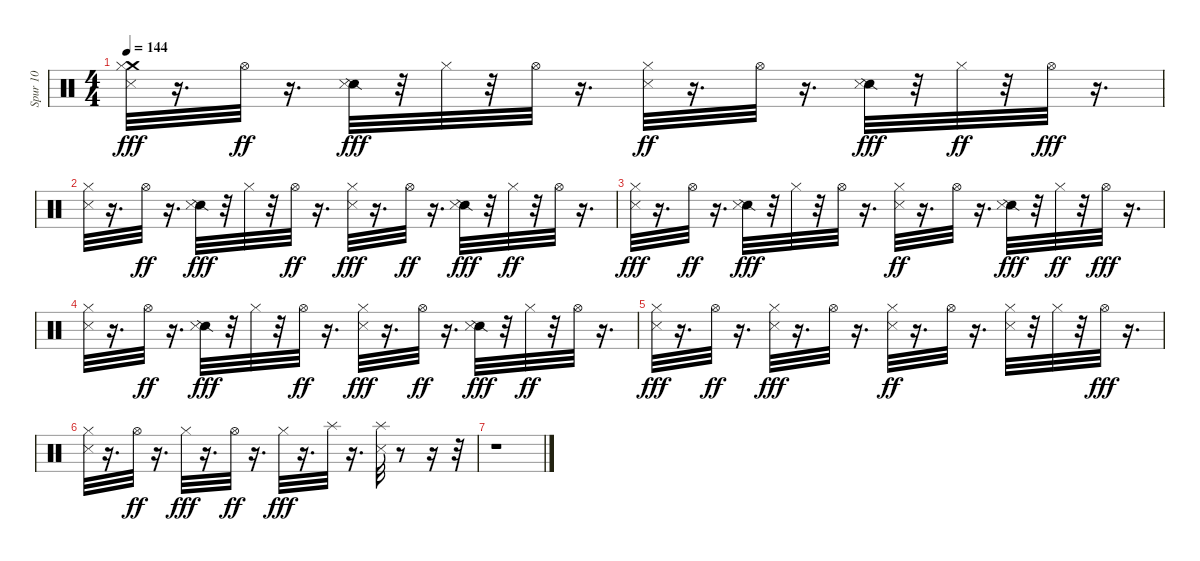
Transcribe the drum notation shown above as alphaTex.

\track ("Spur 10" "Spur 10") {instrument percussion}
\staff {score}
\articulation defaults
\ts (4 4)
\tempo 144
\clef neutral
\ks c
("Crash medium (hit)" "Metronome (hit)" "Hi-Hat (closed)").32{dy fff} r.16{d} "Hi-Hat (open)".32{dy ff} r.16{d} ("Snare (side stick) 2" "Metronome (hit)").32{dy fff} r.32 "Hi-Hat (closed)".32 r.32 "Hi-Hat (open)".32 r.16{d} ("Metronome (hit)" "Hi-Hat (closed)").32{dy ff} r.16{d} "Hi-Hat (open)".32 r.16{d} ("Snare (side stick) 2" "Metronome (hit)").32{dy fff} r.32 "Hi-Hat (closed)".32{dy ff} r.32 "Hi-Hat (open)".32{dy fff} r.16{d} |
("Metronome (hit)" "Hi-Hat (closed)").32 r.16{d} "Hi-Hat (open)".32{dy ff} r.16{d} ("Snare (side stick) 2" "Metronome (hit)").32{dy fff} r.32 "Hi-Hat (closed)".32 r.32 "Hi-Hat (open)".32{dy ff} r.16{d} ("Metronome (hit)" "Hi-Hat (closed)").32{dy fff} r.16{d} "Hi-Hat (open)".32{dy ff} r.16{d} ("Snare (side stick) 2" "Metronome (hit)").32{dy fff} r.32 "Hi-Hat (closed)".32{dy ff} r.32 "Hi-Hat (open)".32 r.16{d} |
("Metronome (hit)" "Hi-Hat (closed)").32{dy fff} r.16{d} "Hi-Hat (open)".32{dy ff} r.16{d} ("Snare (side stick) 2" "Metronome (hit)").32{dy fff} r.32 "Hi-Hat (closed)".32 r.32 "Hi-Hat (open)".32 r.16{d} ("Metronome (hit)" "Hi-Hat (closed)").32{dy ff} r.16{d} "Hi-Hat (open)".32 r.16{d} ("Snare (side stick) 2" "Metronome (hit)").32{dy fff} r.32 "Hi-Hat (closed)".32{dy ff} r.32 "Hi-Hat (open)".32{dy fff} r.16{d} |
("Metronome (hit)" "Hi-Hat (closed)").32 r.16{d} "Hi-Hat (open)".32{dy ff} r.16{d} ("Snare (side stick) 2" "Metronome (hit)").32{dy fff} r.32 "Hi-Hat (closed)".32 r.32 "Hi-Hat (open)".32{dy ff} r.16{d} ("Metronome (hit)" "Hi-Hat (closed)").32{dy fff} r.16{d} "Hi-Hat (open)".32{dy ff} r.16{d} ("Snare (side stick) 2" "Metronome (hit)").32{dy fff} r.32 "Hi-Hat (closed)".32{dy ff} r.32 "Hi-Hat (open)".32 r.16{d} |
("Metronome (hit)" "Hi-Hat (closed)").32{dy fff} r.16{d} "Hi-Hat (open)".32{dy ff} r.16{d} ("Metronome (hit)" "Hi-Hat (closed)").32{dy fff} r.16{d} "Hi-Hat (open)".32 r.16{d} ("Metronome (hit)" "Hi-Hat (closed)").32{dy ff} r.16{d} "Hi-Hat (open)".32 r.16{d} ("Metronome (hit)" "Hi-Hat (closed)").32 r.32 "Hi-Hat (closed)".32 r.32 "Hi-Hat (open)".32{dy fff} r.16{d} |
("Metronome (hit)" "Hi-Hat (closed)").32 r.16{d} "Hi-Hat (open)".32{dy ff} r.16{d} "Hi-Hat (closed)".32{dy fff} r.16{d} "Hi-Hat (open)".32{dy ff} r.16{d} "Hi-Hat (closed)".32{dy fff} r.16{d} "Splash (hit)".32 r.16{d} ("Metronome (hit)" "Splash (hit)").32 r.8 r.16 r.32 |
r.1
